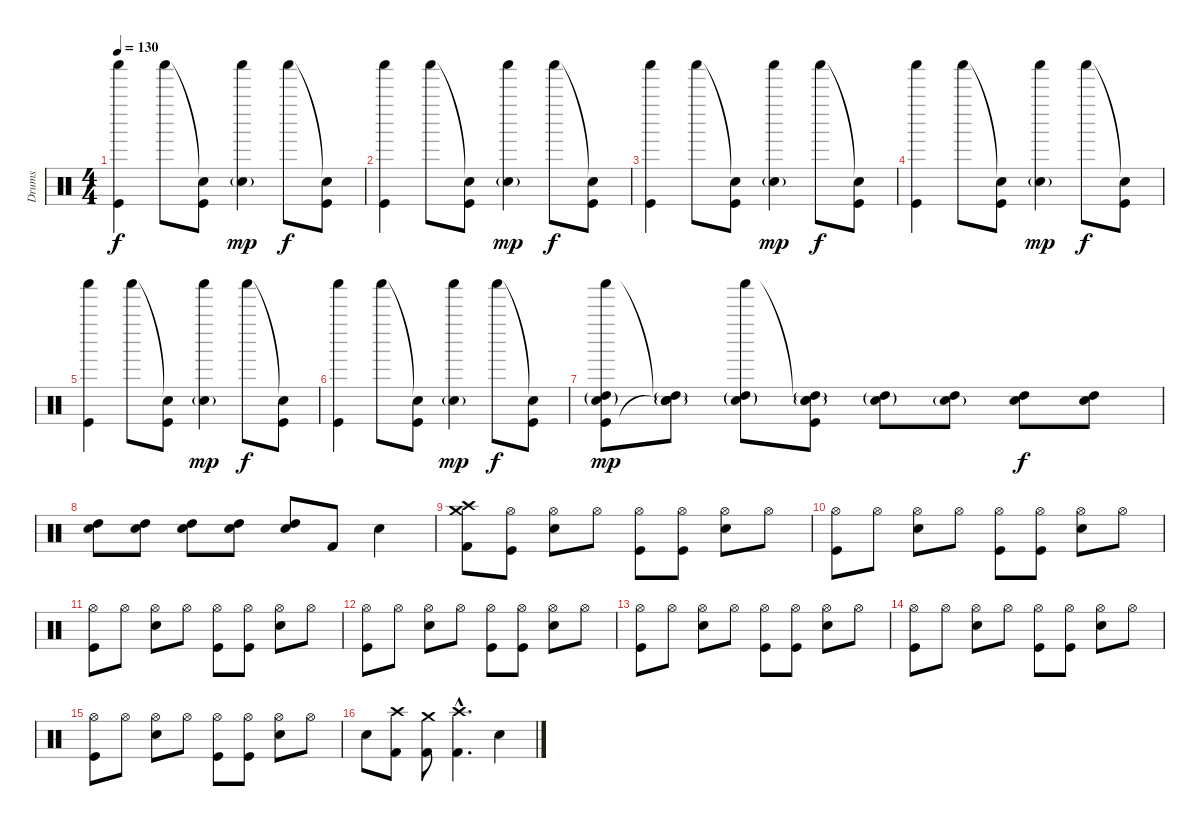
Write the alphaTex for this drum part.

\track ("Drums" "Drums") {instrument percussion}
\staff {score}
\articulation defaults
\ts (4 4)
\tempo 130
\clef neutral
\ks c
("Shaker (hit)" "Kick (hit)").4{dy f} "Shaker (hit)".8 ("Snare (hit)"{t} "Kick (hit)").8 ("Shaker (hit)" "Electric Snare (hit)"{g}).4{dy mp} "Shaker (hit)".8{dy f} ("Snare (hit)"{t} "Kick (hit)").8 |
("Shaker (hit)" "Kick (hit)").4 "Shaker (hit)".8 ("Snare (hit)"{t} "Kick (hit)").8 ("Shaker (hit)" "Electric Snare (hit)"{g}).4{dy mp} "Shaker (hit)".8{dy f} ("Snare (hit)"{t} "Kick (hit)").8 |
("Shaker (hit)" "Kick (hit)").4 "Shaker (hit)".8 ("Snare (hit)"{t} "Kick (hit)").8 ("Shaker (hit)" "Electric Snare (hit)"{g}).4{dy mp} "Shaker (hit)".8{dy f} ("Snare (hit)"{t} "Kick (hit)").8 |
("Shaker (hit)" "Kick (hit)").4 "Shaker (hit)".8 ("Snare (hit)"{t} "Kick (hit)").8 ("Shaker (hit)" "Electric Snare (hit)"{g}).4{dy mp} "Shaker (hit)".8{dy f} ("Snare (hit)"{t} "Kick (hit)").8 |
("Shaker (hit)" "Kick (hit)").4 "Shaker (hit)".8 ("Snare (hit)"{t} "Kick (hit)").8 ("Shaker (hit)" "Electric Snare (hit)"{g}).4{dy mp} "Shaker (hit)".8{dy f} ("Snare (hit)"{t} "Kick (hit)").8 |
("Shaker (hit)" "Kick (hit)").4 "Shaker (hit)".8 ("Snare (hit)"{t} "Kick (hit)").8 ("Shaker (hit)" "Electric Snare (hit)"{g}).4{dy mp} "Shaker (hit)".8{dy f} ("Snare (hit)"{t} "Kick (hit)").8 |
("Shaker (hit)" "High Tom (hit)"{g} "Electric Snare (hit)"{g} "Kick (hit)").8{dy mp} ("Snare (hit)"{t} "High Tom (hit)"{g} "Electric Snare (hit)"{g} "Snare (hit)"{t}).8 ("Shaker (hit)" "High Tom (hit)"{g} "Electric Snare (hit)"{g}).8 ("Snare (hit)"{t} "High Tom (hit)"{g} "Electric Snare (hit)"{g} "Kick (hit)").8 ("High Tom (hit)"{g} "Electric Snare (hit)"{g}).8 ("High Tom (hit)" "Electric Snare (hit)"{g}).8 ("High Tom (hit)" "Electric Snare (hit)").8{dy f} ("High Tom (hit)" "Electric Snare (hit)").8 |
("High Tom (hit)" "Electric Snare (hit)").8 ("High Tom (hit)" "Electric Snare (hit)").8 ("High Tom (hit)" "Electric Snare (hit)").8 ("High Tom (hit)" "Electric Snare (hit)").8 ("High Tom (hit)" "Electric Snare (hit)").8 "Kick (hit) 2".8 "Electric Snare (hit)".4 |
("Crash medium (hit)" "Crash high (hit)" "Kick (hit) 2").8 ("Kick (hit)" "Hi-Hat (open)").8 ("Electric Snare (hit)" "Hi-Hat (open)").8 "Hi-Hat (open)".8 ("Kick (hit)" "Hi-Hat (open)").8 ("Kick (hit)" "Hi-Hat (open)").8 ("Electric Snare (hit)" "Hi-Hat (open)").8 "Hi-Hat (open)".8 |
("Kick (hit)" "Hi-Hat (open)").8 "Hi-Hat (open)".8 ("Electric Snare (hit)" "Hi-Hat (open)").8 "Hi-Hat (open)".8 ("Kick (hit)" "Hi-Hat (open)").8 ("Kick (hit)" "Hi-Hat (open)").8 ("Electric Snare (hit)" "Hi-Hat (open)").8 "Hi-Hat (open)".8 |
("Kick (hit)" "Hi-Hat (open)").8 "Hi-Hat (open)".8 ("Electric Snare (hit)" "Hi-Hat (open)").8 "Hi-Hat (open)".8 ("Kick (hit)" "Hi-Hat (open)").8 ("Kick (hit)" "Hi-Hat (open)").8 ("Electric Snare (hit)" "Hi-Hat (open)").8 "Hi-Hat (open)".8 |
("Kick (hit)" "Hi-Hat (open)").8 "Hi-Hat (open)".8 ("Electric Snare (hit)" "Hi-Hat (open)").8 "Hi-Hat (open)".8 ("Kick (hit)" "Hi-Hat (open)").8 ("Kick (hit)" "Hi-Hat (open)").8 ("Electric Snare (hit)" "Hi-Hat (open)").8 "Hi-Hat (open)".8 |
("Kick (hit)" "Hi-Hat (open)").8 "Hi-Hat (open)".8 ("Electric Snare (hit)" "Hi-Hat (open)").8 "Hi-Hat (open)".8 ("Kick (hit)" "Hi-Hat (open)").8 ("Kick (hit)" "Hi-Hat (open)").8 ("Electric Snare (hit)" "Hi-Hat (open)").8 "Hi-Hat (open)".8 |
("Kick (hit)" "Hi-Hat (open)").8 "Hi-Hat (open)".8 ("Electric Snare (hit)" "Hi-Hat (open)").8 "Hi-Hat (open)".8 ("Kick (hit)" "Hi-Hat (open)").8 ("Kick (hit)" "Hi-Hat (open)").8 ("Electric Snare (hit)" "Hi-Hat (open)").8 "Hi-Hat (open)".8 |
("Kick (hit)" "Hi-Hat (open)").8 "Hi-Hat (open)".8 ("Electric Snare (hit)" "Hi-Hat (open)").8 "Hi-Hat (open)".8 ("Kick (hit)" "Hi-Hat (open)").8 ("Kick (hit)" "Hi-Hat (open)").8 ("Electric Snare (hit)" "Hi-Hat (open)").8 "Hi-Hat (open)".8 |
"Electric Snare (hit)".8 ("Kick (hit) 2" "Crash high (hit)").8 ("Kick (hit) 2" "Crash medium (hit)").8 ("Kick (hit) 2"{hac} "Crash high (hit)"{hac}).4{d} "Electric Snare (hit)".4
